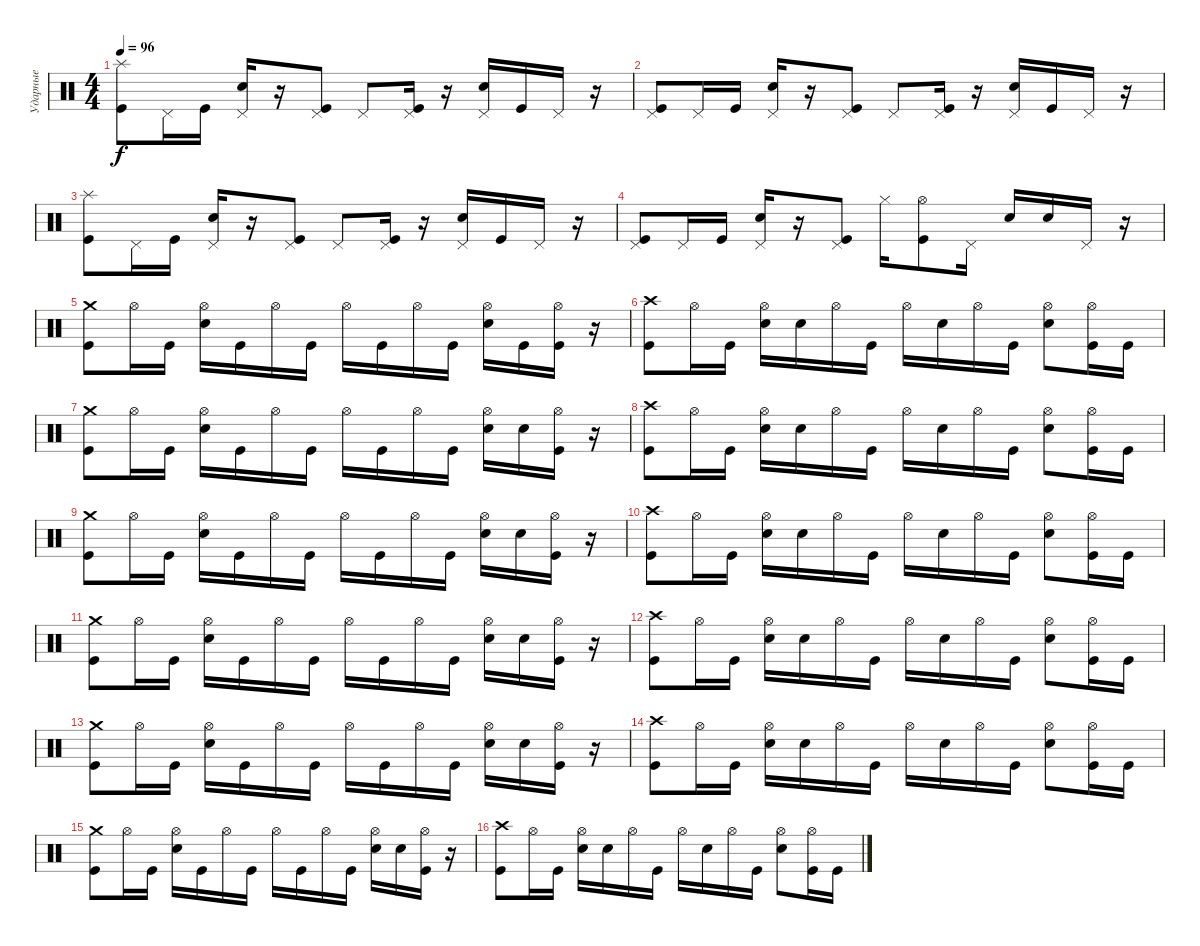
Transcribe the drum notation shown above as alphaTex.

\track ("Ударные" "Ударные") {instrument percussion}
\staff {score}
\articulation defaults
\ts (4 4)
\tempo 96
\clef neutral
\ks c
("Splash (hit)" "Kick (hit)").8{dy f} "Pedal Hi-Hat (hit)".16 "Kick (hit)".16 ("Pedal Hi-Hat (hit)" "Electric Snare (hit)").16 r.16 ("Pedal Hi-Hat (hit)" "Kick (hit)").8 "Pedal Hi-Hat (hit)".8 ("Pedal Hi-Hat (hit)" "Kick (hit)").16 r.16 ("Pedal Hi-Hat (hit)" "Electric Snare (hit)").16 "Kick (hit)".16 "Pedal Hi-Hat (hit)".16 r.16 |
("Pedal Hi-Hat (hit)" "Kick (hit)").8 "Pedal Hi-Hat (hit)".16 "Kick (hit)".16 ("Pedal Hi-Hat (hit)" "Electric Snare (hit)").16 r.16 ("Pedal Hi-Hat (hit)" "Kick (hit)").8 "Pedal Hi-Hat (hit)".8 ("Pedal Hi-Hat (hit)" "Kick (hit)").16 r.16 ("Pedal Hi-Hat (hit)" "Electric Snare (hit)").16 "Kick (hit)".16 "Pedal Hi-Hat (hit)".16 r.16 |
("Splash (hit)" "Kick (hit)").8 "Pedal Hi-Hat (hit)".16 "Kick (hit)".16 ("Pedal Hi-Hat (hit)" "Electric Snare (hit)").16 r.16 ("Pedal Hi-Hat (hit)" "Kick (hit)").8 "Pedal Hi-Hat (hit)".8 ("Pedal Hi-Hat (hit)" "Kick (hit)").16 r.16 ("Pedal Hi-Hat (hit)" "Electric Snare (hit)").16 "Kick (hit)".16 "Pedal Hi-Hat (hit)".16 r.16 |
("Pedal Hi-Hat (hit)" "Kick (hit)").8 "Pedal Hi-Hat (hit)".16 "Kick (hit)".16 ("Pedal Hi-Hat (hit)" "Electric Snare (hit)").16 r.16 ("Pedal Hi-Hat (hit)" "Kick (hit)").8 "Hi-Hat (closed)".16 ("Hi-Hat (open)" "Kick (hit)").8 "Pedal Hi-Hat (hit)".16 "Electric Snare (hit)".16 "Electric Snare (hit)".16 "Pedal Hi-Hat (hit)".16 r.16 |
("Crash medium (hit)" "Kick (hit)").8 "Hi-Hat (open)".16 "Kick (hit)".16 ("Hi-Hat (open)" "Electric Snare (hit)").16 "Kick (hit)".16 "Hi-Hat (open)".16 "Kick (hit)".16 "Hi-Hat (open)".16 "Kick (hit)".16 "Hi-Hat (open)".16 "Kick (hit)".16 ("Hi-Hat (open)" "Electric Snare (hit)").16 "Kick (hit)".16 ("Hi-Hat (open)" "Kick (hit)").16 r.16 |
("Crash high (hit)" "Kick (hit)").8 "Hi-Hat (open)".16 "Kick (hit)".16 ("Hi-Hat (open)" "Electric Snare (hit)").16 "Electric Snare (hit)".16 "Hi-Hat (open)".16 "Kick (hit)".16 "Hi-Hat (open)".16 "Electric Snare (hit)".16 "Hi-Hat (open)".16 "Kick (hit)".16 ("Hi-Hat (open)" "Electric Snare (hit)").8 ("Hi-Hat (open)" "Kick (hit)").16 "Kick (hit)".16 |
("Crash medium (hit)" "Kick (hit)").8 "Hi-Hat (open)".16 "Kick (hit)".16 ("Hi-Hat (open)" "Electric Snare (hit)").16 "Kick (hit)".16 "Hi-Hat (open)".16 "Kick (hit)".16 "Hi-Hat (open)".16 "Kick (hit)".16 "Hi-Hat (open)".16 "Kick (hit)".16 ("Hi-Hat (open)" "Electric Snare (hit)").16 "Electric Snare (hit)".16 ("Hi-Hat (open)" "Kick (hit)").16 r.16 |
("Crash high (hit)" "Kick (hit)").8 "Hi-Hat (open)".16 "Kick (hit)".16 ("Hi-Hat (open)" "Electric Snare (hit)").16 "Electric Snare (hit)".16 "Hi-Hat (open)".16 "Kick (hit)".16 "Hi-Hat (open)".16 "Electric Snare (hit)".16 "Hi-Hat (open)".16 "Kick (hit)".16 ("Hi-Hat (open)" "Electric Snare (hit)").8 ("Hi-Hat (open)" "Kick (hit)").16 "Kick (hit)".16 |
("Crash medium (hit)" "Kick (hit)").8 "Hi-Hat (open)".16 "Kick (hit)".16 ("Hi-Hat (open)" "Electric Snare (hit)").16 "Kick (hit)".16 "Hi-Hat (open)".16 "Kick (hit)".16 "Hi-Hat (open)".16 "Kick (hit)".16 "Hi-Hat (open)".16 "Kick (hit)".16 ("Hi-Hat (open)" "Electric Snare (hit)").16 "Electric Snare (hit)".16 ("Hi-Hat (open)" "Kick (hit)").16 r.16 |
("Crash high (hit)" "Kick (hit)").8 "Hi-Hat (open)".16 "Kick (hit)".16 ("Hi-Hat (open)" "Electric Snare (hit)").16 "Electric Snare (hit)".16 "Hi-Hat (open)".16 "Kick (hit)".16 "Hi-Hat (open)".16 "Electric Snare (hit)".16 "Hi-Hat (open)".16 "Kick (hit)".16 ("Hi-Hat (open)" "Electric Snare (hit)").8 ("Hi-Hat (open)" "Kick (hit)").16 "Kick (hit)".16 |
("Crash medium (hit)" "Kick (hit)").8 "Hi-Hat (open)".16 "Kick (hit)".16 ("Hi-Hat (open)" "Electric Snare (hit)").16 "Kick (hit)".16 "Hi-Hat (open)".16 "Kick (hit)".16 "Hi-Hat (open)".16 "Kick (hit)".16 "Hi-Hat (open)".16 "Kick (hit)".16 ("Hi-Hat (open)" "Electric Snare (hit)").16 "Electric Snare (hit)".16 ("Hi-Hat (open)" "Kick (hit)").16 r.16 |
("Crash high (hit)" "Kick (hit)").8 "Hi-Hat (open)".16 "Kick (hit)".16 ("Hi-Hat (open)" "Electric Snare (hit)").16 "Electric Snare (hit)".16 "Hi-Hat (open)".16 "Kick (hit)".16 "Hi-Hat (open)".16 "Electric Snare (hit)".16 "Hi-Hat (open)".16 "Kick (hit)".16 ("Hi-Hat (open)" "Electric Snare (hit)").8 ("Hi-Hat (open)" "Kick (hit)").16 "Kick (hit)".16 |
("Crash medium (hit)" "Kick (hit)").8 "Hi-Hat (open)".16 "Kick (hit)".16 ("Hi-Hat (open)" "Electric Snare (hit)").16 "Kick (hit)".16 "Hi-Hat (open)".16 "Kick (hit)".16 "Hi-Hat (open)".16 "Kick (hit)".16 "Hi-Hat (open)".16 "Kick (hit)".16 ("Hi-Hat (open)" "Electric Snare (hit)").16 "Electric Snare (hit)".16 ("Hi-Hat (open)" "Kick (hit)").16 r.16 |
("Crash high (hit)" "Kick (hit)").8 "Hi-Hat (open)".16 "Kick (hit)".16 ("Hi-Hat (open)" "Electric Snare (hit)").16 "Electric Snare (hit)".16 "Hi-Hat (open)".16 "Kick (hit)".16 "Hi-Hat (open)".16 "Electric Snare (hit)".16 "Hi-Hat (open)".16 "Kick (hit)".16 ("Hi-Hat (open)" "Electric Snare (hit)").8 ("Hi-Hat (open)" "Kick (hit)").16 "Kick (hit)".16 |
("Crash medium (hit)" "Kick (hit)").8 "Hi-Hat (open)".16 "Kick (hit)".16 ("Hi-Hat (open)" "Electric Snare (hit)").16 "Kick (hit)".16 "Hi-Hat (open)".16 "Kick (hit)".16 "Hi-Hat (open)".16 "Kick (hit)".16 "Hi-Hat (open)".16 "Kick (hit)".16 ("Hi-Hat (open)" "Electric Snare (hit)").16 "Electric Snare (hit)".16 ("Hi-Hat (open)" "Kick (hit)").16 r.16 |
("Crash high (hit)" "Kick (hit)").8 "Hi-Hat (open)".16 "Kick (hit)".16 ("Hi-Hat (open)" "Electric Snare (hit)").16 "Electric Snare (hit)".16 "Hi-Hat (open)".16 "Kick (hit)".16 "Hi-Hat (open)".16 "Electric Snare (hit)".16 "Hi-Hat (open)".16 "Kick (hit)".16 ("Hi-Hat (open)" "Electric Snare (hit)").8 ("Hi-Hat (open)" "Kick (hit)").16 "Kick (hit)".16
